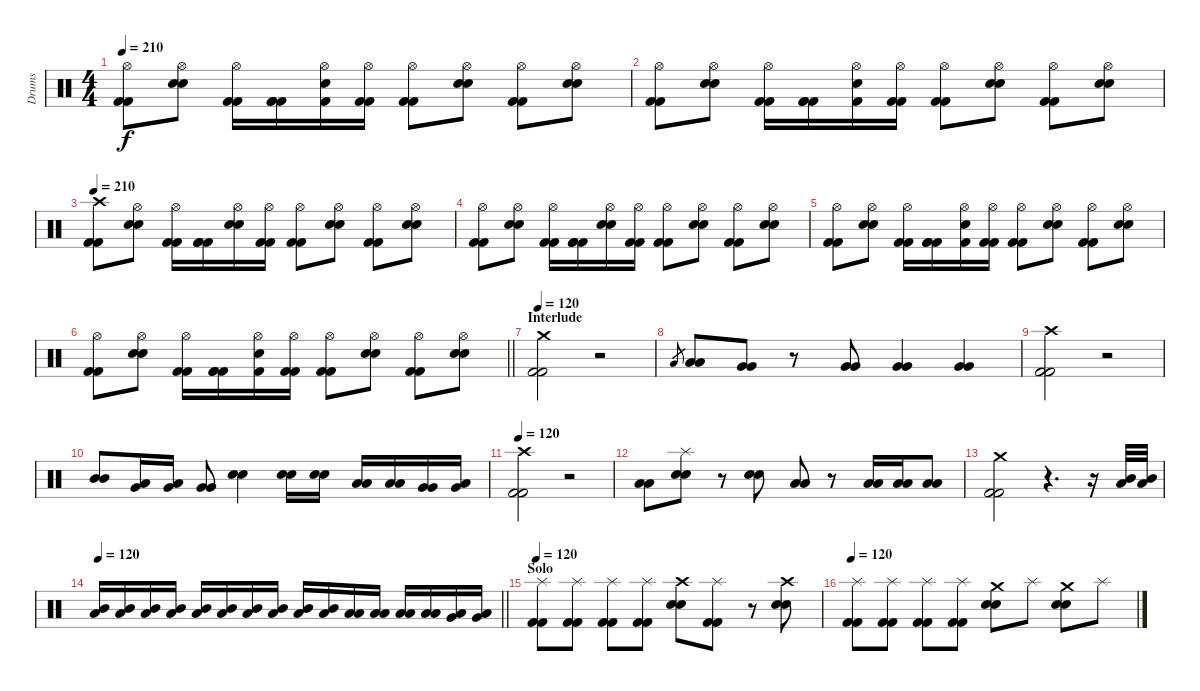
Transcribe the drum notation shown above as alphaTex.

\track ("Drums" "Drums") {instrument percussion}
\staff {score}
\articulation defaults
\ts (4 4)
\tempo 210
\clef neutral
\ks c
("Hi-Hat (open)" "Kick (hit) 2" "Kick (hit) 2").8{dy f} ("Hi-Hat (open)" "Snare (hit) 2" "Snare (hit) 2").8 ("Hi-Hat (open)" "Kick (hit) 2" "Kick (hit) 2").16 ("Kick (hit) 2" "Kick (hit) 2" "Kick (hit) 2").16 ("Hi-Hat (open)" "Snare (hit) 2" "Kick (hit) 2").16 ("Hi-Hat (open)" "Kick (hit) 2" "Kick (hit) 2").16 ("Hi-Hat (open)" "Kick (hit) 2" "Kick (hit) 2").8 ("Hi-Hat (open)" "Snare (hit) 2" "Snare (hit) 2").8 ("Hi-Hat (open)" "Kick (hit) 2" "Kick (hit) 2").8 ("Hi-Hat (open)" "Snare (hit) 2" "Snare (hit) 2").8 |
("Hi-Hat (open)" "Kick (hit) 2" "Kick (hit) 2").8 ("Hi-Hat (open)" "Snare (hit) 2" "Snare (hit) 2").8 ("Hi-Hat (open)" "Kick (hit) 2" "Kick (hit) 2").16 ("Kick (hit) 2" "Kick (hit) 2" "Kick (hit) 2").16 ("Hi-Hat (open)" "Snare (hit) 2" "Kick (hit) 2").16 ("Hi-Hat (open)" "Kick (hit) 2" "Kick (hit) 2").16 ("Hi-Hat (open)" "Kick (hit) 2" "Kick (hit) 2").8 ("Hi-Hat (open)" "Snare (hit) 2" "Snare (hit) 2").8 ("Hi-Hat (open)" "Kick (hit) 2" "Kick (hit) 2").8 ("Hi-Hat (open)" "Snare (hit) 2" "Snare (hit) 2").8 |
\tempo 210
("Crash high (hit)" "Kick (hit) 2" "Kick (hit) 2").8 ("Hi-Hat (open)" "Snare (hit) 2" "Snare (hit) 2").8 ("Hi-Hat (open)" "Kick (hit) 2" "Kick (hit) 2").16 ("Kick (hit) 2" "Kick (hit) 2" "Kick (hit) 2").16 ("Hi-Hat (open)" "Snare (hit) 2" "Snare (hit) 2").16 ("Hi-Hat (open)" "Kick (hit) 2" "Kick (hit) 2").16 ("Hi-Hat (open)" "Kick (hit) 2" "Kick (hit) 2").8 ("Hi-Hat (open)" "Snare (hit) 2" "Snare (hit) 2").8 ("Hi-Hat (open)" "Kick (hit) 2" "Kick (hit) 2").8 ("Hi-Hat (open)" "Snare (hit) 2" "Snare (hit) 2").8 |
("Hi-Hat (open)" "Kick (hit) 2" "Kick (hit) 2").8 ("Hi-Hat (open)" "Snare (hit) 2" "Snare (hit) 2").8 ("Hi-Hat (open)" "Kick (hit) 2" "Kick (hit) 2").16 ("Kick (hit) 2" "Kick (hit) 2" "Kick (hit) 2").16 ("Hi-Hat (open)" "Snare (hit) 2" "Snare (hit) 2").16 ("Hi-Hat (open)" "Kick (hit) 2" "Kick (hit) 2").16 ("Hi-Hat (open)" "Kick (hit) 2" "Kick (hit) 2").8 ("Hi-Hat (open)" "Snare (hit) 2" "Snare (hit) 2").8 ("Hi-Hat (open)" "Kick (hit) 2" "Kick (hit) 2").8 ("Hi-Hat (open)" "Snare (hit) 2" "Snare (hit) 2").8 |
("Hi-Hat (open)" "Kick (hit) 2" "Kick (hit) 2").8 ("Hi-Hat (open)" "Snare (hit) 2" "Snare (hit) 2").8 ("Hi-Hat (open)" "Kick (hit) 2" "Kick (hit) 2").16 ("Kick (hit) 2" "Kick (hit) 2" "Kick (hit) 2").16 ("Hi-Hat (open)" "Snare (hit) 2" "Kick (hit) 2").16 ("Hi-Hat (open)" "Kick (hit) 2" "Kick (hit) 2").16 ("Hi-Hat (open)" "Kick (hit) 2" "Kick (hit) 2").8 ("Hi-Hat (open)" "Snare (hit) 2" "Snare (hit) 2").8 ("Hi-Hat (open)" "Kick (hit) 2" "Kick (hit) 2").8 ("Hi-Hat (open)" "Snare (hit) 2" "Snare (hit) 2").8 |
\barLineRight lightlight
("Hi-Hat (open)" "Kick (hit) 2" "Kick (hit) 2").8 ("Hi-Hat (open)" "Snare (hit) 2" "Snare (hit) 2").8 ("Hi-Hat (open)" "Kick (hit) 2" "Kick (hit) 2").16 ("Kick (hit) 2" "Kick (hit) 2" "Kick (hit) 2").16 ("Hi-Hat (open)" "Snare (hit) 2" "Kick (hit) 2").16 ("Hi-Hat (open)" "Kick (hit) 2" "Kick (hit) 2").16 ("Hi-Hat (open)" "Kick (hit) 2" "Kick (hit) 2").8 ("Hi-Hat (open)" "Snare (hit) 2" "Snare (hit) 2").8 ("Hi-Hat (open)" "Kick (hit) 2" "Kick (hit) 2").8 ("Hi-Hat (open)" "Snare (hit) 2" "Snare (hit) 2").8 |
\section ("" "Interlude")
\tempo 120
("Crash medium (hit)" "Kick (hit) 2" "Kick (hit) 2").2 r.2 |
"Low Tom (hit)".8{gr} ("Low Tom (hit)" "Low Tom (hit)").8 ("Very Low Tom (hit)" "Very Low Tom (hit)").8 r.8 ("Very Low Tom (hit)" "Very Low Tom (hit)").8 ("Very Low Tom (hit)" "Very Low Tom (hit)").4 ("Very Low Tom (hit)" "Very Low Tom (hit)").4 |
("Crash high (hit)" "Kick (hit) 2" "Kick (hit) 2").2 r.2 |
("Mid Tom (hit)" "Mid Tom (hit)").8 ("Low Tom (hit)" "Very Low Tom (hit)").16 ("Low Tom (hit)" "Very Low Tom (hit)").16 ("Very Low Tom (hit)" "Very Low Tom (hit)").8 ("Snare (hit) 2" "Snare (hit) 2").4 ("Snare (hit) 2" "Snare (hit) 2").16 ("Snare (hit) 2" "Snare (hit) 2").16 ("Low Tom (hit)" "Low Tom (hit)").16 ("Low Tom (hit)" "Low Tom (hit)").16 ("Very Low Tom (hit)" "Very Low Tom (hit)").16 ("Low Floor Tom (hit)" "Very Low Tom (hit)").16 |
\tempo 120
("Crash high (hit)" "Kick (hit) 2" "Kick (hit) 2").2 r.2 |
("Low Tom (hit)" "Low Tom (hit)").8 ("Splash (hit)" "Snare (hit) 2" "Snare (hit) 2").8 r.8 ("Snare (hit) 2" "Snare (hit) 2").8 ("Low Tom (hit)" "Low Tom (hit)").8 r.8 ("Low Tom (hit)" "Low Tom (hit)").16 ("Low Tom (hit)" "Low Tom (hit)").16 ("Low Tom (hit)" "Low Tom (hit)").8 |
("Crash medium (hit)" "Kick (hit) 2" "Kick (hit) 2").2 r.4{d} r.16 ("Mid Tom (hit)" "Low Tom (hit)").32 ("Mid Tom (hit)" "Low Tom (hit)").32 |
\tempo 120
\barLineRight lightlight
("Low Tom (hit)" "Mid Tom (hit)").16 ("Low Tom (hit)" "Mid Tom (hit)").16 ("Low Tom (hit)" "Mid Tom (hit)").16 ("Low Tom (hit)" "Mid Tom (hit)").16 ("Low Tom (hit)" "Mid Tom (hit)").16 ("Low Tom (hit)" "Mid Tom (hit)").16 ("Low Tom (hit)" "Mid Tom (hit)").16 ("Low Tom (hit)" "Mid Tom (hit)").16 ("Low Tom (hit)" "Mid Tom (hit)").16 ("Low Tom (hit)" "Mid Tom (hit)").16 ("Low Tom (hit)" "Low Tom (hit)").16 ("Low Tom (hit)" "Low Tom (hit)").16 ("Low Tom (hit)" "Low Tom (hit)").16 ("Low Tom (hit)" "Low Tom (hit)").16 ("Low Tom (hit)" "Very Low Tom (hit)").16 ("Low Tom (hit)" "Very Low Tom (hit)").16 |
\section ("" "Solo")
\tempo 120
("Splash (hit)" "Kick (hit) 2" "Kick (hit) 2").8 ("Splash (hit)" "Kick (hit) 2" "Kick (hit) 2").8 ("Splash (hit)" "Kick (hit) 2" "Kick (hit) 2").8 ("Splash (hit)" "Kick (hit) 2" "Kick (hit) 2").8 ("Crash high (hit)" "Snare (hit) 2" "Snare (hit) 2").8 ("Splash (hit)" "Kick (hit) 2" "Kick (hit) 2").8 r.8 ("Crash high (hit)" "Snare (hit) 2" "Snare (hit) 2").8 |
\tempo 120
("Splash (hit)" "Kick (hit) 2" "Kick (hit) 2").8 ("Splash (hit)" "Kick (hit) 2" "Kick (hit) 2").8 ("Splash (hit)" "Kick (hit) 2" "Kick (hit) 2").8 ("Splash (hit)" "Kick (hit) 2" "Kick (hit) 2").8 ("Crash medium (hit)" "Snare (hit) 2" "Snare (hit) 2").8 "Splash (hit)".8 ("Crash medium (hit)" "Snare (hit) 2" "Snare (hit) 2").8 "Splash (hit)".8
